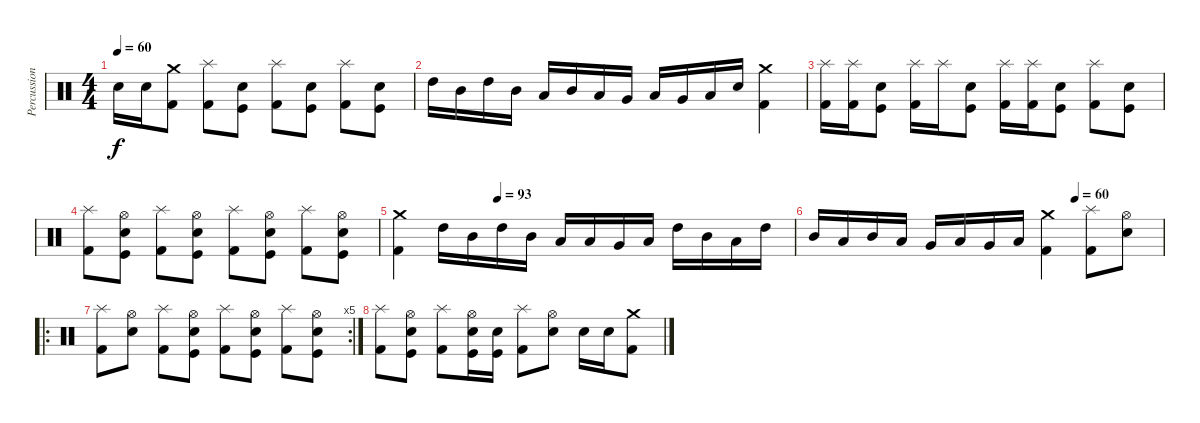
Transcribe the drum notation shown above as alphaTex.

\track ("Percussion" "Percussion") {instrument percussion}
\staff {score}
\articulation defaults
\ts (4 4)
\tempo 60
\clef neutral
\ks c "Electric Snare (hit)".16{dy f} "Electric Snare (hit)".16
("Crash medium (hit)" "Kick (hit) 2").8 ("Splash (hit)" "Kick (hit) 2").8 ("Electric Snare (hit)" "Kick (hit)").8 ("Splash (hit)" "Kick (hit) 2").8 ("Electric Snare (hit)" "Kick (hit)").8 ("Splash (hit)" "Kick (hit) 2").8 ("Electric Snare (hit)" "Kick (hit)").8 |
"High Tom (hit)".16 "Mid Tom (hit)".16 "High Tom (hit)".16 "Mid Tom (hit)".16 "Low Tom (hit)".16 "Mid Tom (hit)".16 "Low Tom (hit)".16 "Very Low Tom (hit)".16 "Low Tom (hit)".16 "Very Low Tom (hit)".16 "Low Floor Tom (hit)".16 "Electric Snare (hit)".16 ("Crash medium (hit)" "Kick (hit) 2").4 |
("Splash (hit)" "Kick (hit) 2").16 ("Splash (hit)" "Kick (hit) 2").16 ("Electric Snare (hit)" "Kick (hit)").8 ("Splash (hit)" "Kick (hit) 2").16 "Splash (hit)".16 ("Electric Snare (hit)" "Kick (hit)").8 ("Splash (hit)" "Kick (hit) 2").16 ("Splash (hit)" "Kick (hit) 2").16 ("Electric Snare (hit)" "Kick (hit)").8 ("Splash (hit)" "Kick (hit) 2").8 ("Electric Snare (hit)" "Kick (hit)").8 |
("Splash (hit)" "Kick (hit) 2").8 ("Hi-Hat (open)" "Electric Snare (hit)" "Kick (hit)").8 ("Splash (hit)" "Kick (hit) 2").8 ("Hi-Hat (open)" "Electric Snare (hit)" "Kick (hit)").8 ("Splash (hit)" "Kick (hit) 2").8 ("Hi-Hat (open)" "Electric Snare (hit)" "Kick (hit)").8 ("Splash (hit)" "Kick (hit) 2").8 ("Hi-Hat (open)" "Electric Snare (hit)" "Kick (hit)").8 |
\tempo (93 0.25)
("Crash medium (hit)" "Kick (hit) 2").4 "High Tom (hit)".16 "Mid Tom (hit)".16 "High Tom (hit)".16 "Mid Tom (hit)".16 "Low Tom (hit)".16 "Low Tom (hit)".16 "Very Low Tom (hit)".16 "Low Floor Tom (hit)".16 "High Tom (hit)".16 "Mid Tom (hit)".16 "Low Tom (hit)".16 "High Tom (hit)".16 |
\tempo (60 0.75)
"Mid Tom (hit)".16 "Low Tom (hit)".16 "Mid Tom (hit)".16 "Low Tom (hit)".16 "Very Low Tom (hit)".16 "Low Tom (hit)".16 "Very Low Tom (hit)".16 "Low Floor Tom (hit)".16 ("Crash medium (hit)" "Kick (hit) 2").4 ("Splash (hit)" "Kick (hit) 2").8 ("Hi-Hat (open)" "Electric Snare (hit)").8 |
\ro
\rc 5
("Splash (hit)" "Kick (hit) 2").8 ("Hi-Hat (open)" "Electric Snare (hit)").8 ("Splash (hit)" "Kick (hit) 2").8 ("Hi-Hat (open)" "Electric Snare (hit)" "Kick (hit)").8 ("Splash (hit)" "Kick (hit) 2").8 ("Hi-Hat (open)" "Electric Snare (hit)" "Kick (hit)").8 ("Splash (hit)" "Kick (hit) 2").8 ("Hi-Hat (open)" "Electric Snare (hit)" "Kick (hit)").8 |
("Splash (hit)" "Kick (hit) 2").8 ("Hi-Hat (open)" "Electric Snare (hit)" "Kick (hit)").8 ("Splash (hit)" "Kick (hit) 2").8 ("Hi-Hat (open)" "Electric Snare (hit)" "Kick (hit)").16 ("Electric Snare (hit)" "Kick (hit)").16 ("Splash (hit)" "Kick (hit) 2").8 ("Hi-Hat (open)" "Electric Snare (hit)").8 "Electric Snare (hit)".16 "Electric Snare (hit)".16 ("Crash medium (hit)" "Kick (hit) 2").8
